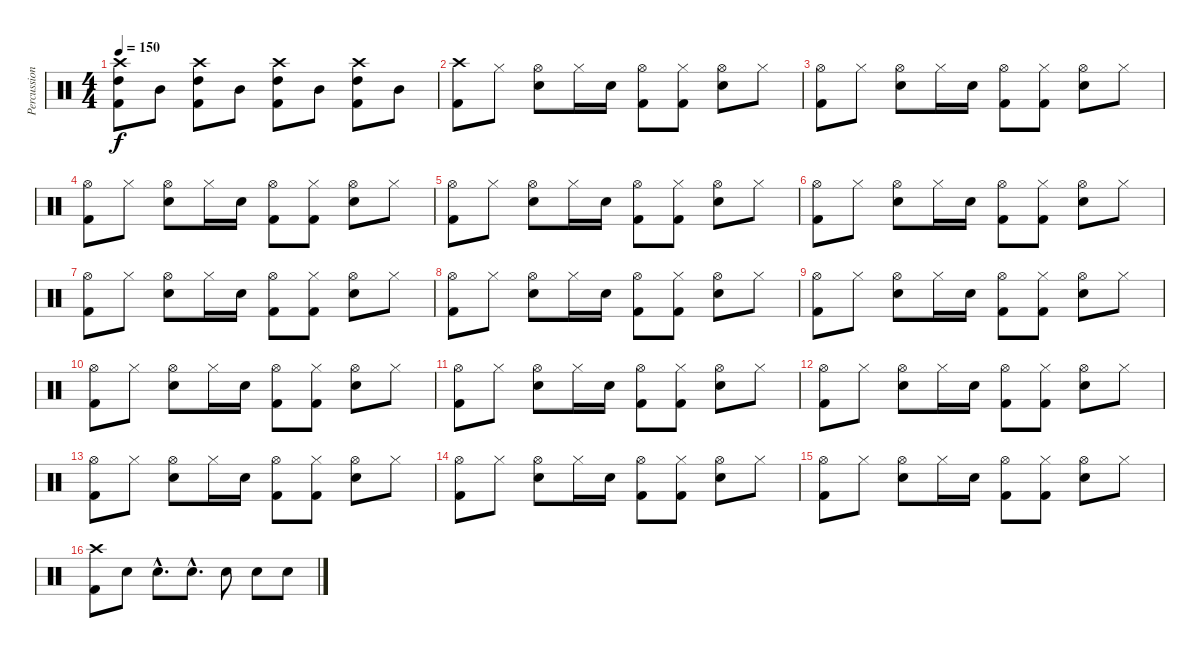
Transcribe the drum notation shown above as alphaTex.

\track ("Percussion" "Percussion") {instrument percussion}
\staff {score}
\articulation defaults
\ts (4 4)
\tempo 150
\clef neutral
\ks c
("Crash high (hit)" "Kick (hit) 2" "High Tom (hit)").8{dy f} "Mid Tom (hit)".8 ("Crash high (hit)" "Kick (hit) 2" "High Tom (hit)").8 "Mid Tom (hit)".8 ("Crash high (hit)" "Kick (hit) 2" "High Tom (hit)").8 "Mid Tom (hit)".8 ("Crash high (hit)" "Kick (hit) 2" "High Tom (hit)").8 "Mid Tom (hit)".8 |
("Crash high (hit)" "Kick (hit) 2").8 "Hi-Hat (closed)".8 ("Hi-Hat (open)" "Electric Snare (hit)").8 "Hi-Hat (closed)".16 "Electric Snare (hit)".16 ("Hi-Hat (open)" "Kick (hit) 2").8 ("Hi-Hat (closed)" "Kick (hit) 2").8 ("Hi-Hat (open)" "Electric Snare (hit)").8 "Hi-Hat (closed)".8 |
("Hi-Hat (open)" "Kick (hit) 2").8 "Hi-Hat (closed)".8 ("Hi-Hat (open)" "Electric Snare (hit)").8 "Hi-Hat (closed)".16 "Electric Snare (hit)".16 ("Hi-Hat (open)" "Kick (hit) 2").8 ("Hi-Hat (closed)" "Kick (hit) 2").8 ("Hi-Hat (open)" "Electric Snare (hit)").8 "Hi-Hat (closed)".8 |
("Hi-Hat (open)" "Kick (hit) 2").8 "Hi-Hat (closed)".8 ("Hi-Hat (open)" "Electric Snare (hit)").8 "Hi-Hat (closed)".16 "Electric Snare (hit)".16 ("Hi-Hat (open)" "Kick (hit) 2").8 ("Hi-Hat (closed)" "Kick (hit) 2").8 ("Hi-Hat (open)" "Electric Snare (hit)").8 "Hi-Hat (closed)".8 |
("Hi-Hat (open)" "Kick (hit) 2").8 "Hi-Hat (closed)".8 ("Hi-Hat (open)" "Electric Snare (hit)").8 "Hi-Hat (closed)".16 "Electric Snare (hit)".16 ("Hi-Hat (open)" "Kick (hit) 2").8 ("Hi-Hat (closed)" "Kick (hit) 2").8 ("Hi-Hat (open)" "Electric Snare (hit)").8 "Hi-Hat (closed)".8 |
("Hi-Hat (open)" "Kick (hit) 2").8 "Hi-Hat (closed)".8 ("Hi-Hat (open)" "Electric Snare (hit)").8 "Hi-Hat (closed)".16 "Electric Snare (hit)".16 ("Hi-Hat (open)" "Kick (hit) 2").8 ("Hi-Hat (closed)" "Kick (hit) 2").8 ("Hi-Hat (open)" "Electric Snare (hit)").8 "Hi-Hat (closed)".8 |
("Hi-Hat (open)" "Kick (hit) 2").8 "Hi-Hat (closed)".8 ("Hi-Hat (open)" "Electric Snare (hit)").8 "Hi-Hat (closed)".16 "Electric Snare (hit)".16 ("Hi-Hat (open)" "Kick (hit) 2").8 ("Hi-Hat (closed)" "Kick (hit) 2").8 ("Hi-Hat (open)" "Electric Snare (hit)").8 "Hi-Hat (closed)".8 |
("Hi-Hat (open)" "Kick (hit) 2").8 "Hi-Hat (closed)".8 ("Hi-Hat (open)" "Electric Snare (hit)").8 "Hi-Hat (closed)".16 "Electric Snare (hit)".16 ("Hi-Hat (open)" "Kick (hit) 2").8 ("Hi-Hat (closed)" "Kick (hit) 2").8 ("Hi-Hat (open)" "Electric Snare (hit)").8 "Hi-Hat (closed)".8 |
("Hi-Hat (open)" "Kick (hit) 2").8 "Hi-Hat (closed)".8 ("Hi-Hat (open)" "Electric Snare (hit)").8 "Hi-Hat (closed)".16 "Electric Snare (hit)".16 ("Hi-Hat (open)" "Kick (hit) 2").8 ("Hi-Hat (closed)" "Kick (hit) 2").8 ("Hi-Hat (open)" "Electric Snare (hit)").8 "Hi-Hat (closed)".8 |
("Hi-Hat (open)" "Kick (hit) 2").8 "Hi-Hat (closed)".8 ("Hi-Hat (open)" "Electric Snare (hit)").8 "Hi-Hat (closed)".16 "Electric Snare (hit)".16 ("Hi-Hat (open)" "Kick (hit) 2").8 ("Hi-Hat (closed)" "Kick (hit) 2").8 ("Hi-Hat (open)" "Electric Snare (hit)").8 "Hi-Hat (closed)".8 |
("Hi-Hat (open)" "Kick (hit) 2").8 "Hi-Hat (closed)".8 ("Hi-Hat (open)" "Electric Snare (hit)").8 "Hi-Hat (closed)".16 "Electric Snare (hit)".16 ("Hi-Hat (open)" "Kick (hit) 2").8 ("Hi-Hat (closed)" "Kick (hit) 2").8 ("Hi-Hat (open)" "Electric Snare (hit)").8 "Hi-Hat (closed)".8 |
("Hi-Hat (open)" "Kick (hit) 2").8 "Hi-Hat (closed)".8 ("Hi-Hat (open)" "Electric Snare (hit)").8 "Hi-Hat (closed)".16 "Electric Snare (hit)".16 ("Hi-Hat (open)" "Kick (hit) 2").8 ("Hi-Hat (closed)" "Kick (hit) 2").8 ("Hi-Hat (open)" "Electric Snare (hit)").8 "Hi-Hat (closed)".8 |
("Hi-Hat (open)" "Kick (hit) 2").8 "Hi-Hat (closed)".8 ("Hi-Hat (open)" "Electric Snare (hit)").8 "Hi-Hat (closed)".16 "Electric Snare (hit)".16 ("Hi-Hat (open)" "Kick (hit) 2").8 ("Hi-Hat (closed)" "Kick (hit) 2").8 ("Hi-Hat (open)" "Electric Snare (hit)").8 "Hi-Hat (closed)".8 |
("Hi-Hat (open)" "Kick (hit) 2").8 "Hi-Hat (closed)".8 ("Hi-Hat (open)" "Electric Snare (hit)").8 "Hi-Hat (closed)".16 "Electric Snare (hit)".16 ("Hi-Hat (open)" "Kick (hit) 2").8 ("Hi-Hat (closed)" "Kick (hit) 2").8 ("Hi-Hat (open)" "Electric Snare (hit)").8 "Hi-Hat (closed)".8 |
("Hi-Hat (open)" "Kick (hit) 2").8 "Hi-Hat (closed)".8 ("Hi-Hat (open)" "Electric Snare (hit)").8 "Hi-Hat (closed)".16 "Electric Snare (hit)".16 ("Hi-Hat (open)" "Kick (hit) 2").8 ("Hi-Hat (closed)" "Kick (hit) 2").8 ("Hi-Hat (open)" "Electric Snare (hit)").8 "Hi-Hat (closed)".8 |
("Crash high (hit)" "Kick (hit) 2").8 "Electric Snare (hit)".8 "Electric Snare (hit)"{hac}.8{d} "Electric Snare (hit)"{hac}.8{d} "Electric Snare (hit)".8 "Electric Snare (hit)".8 "Electric Snare (hit)".8
